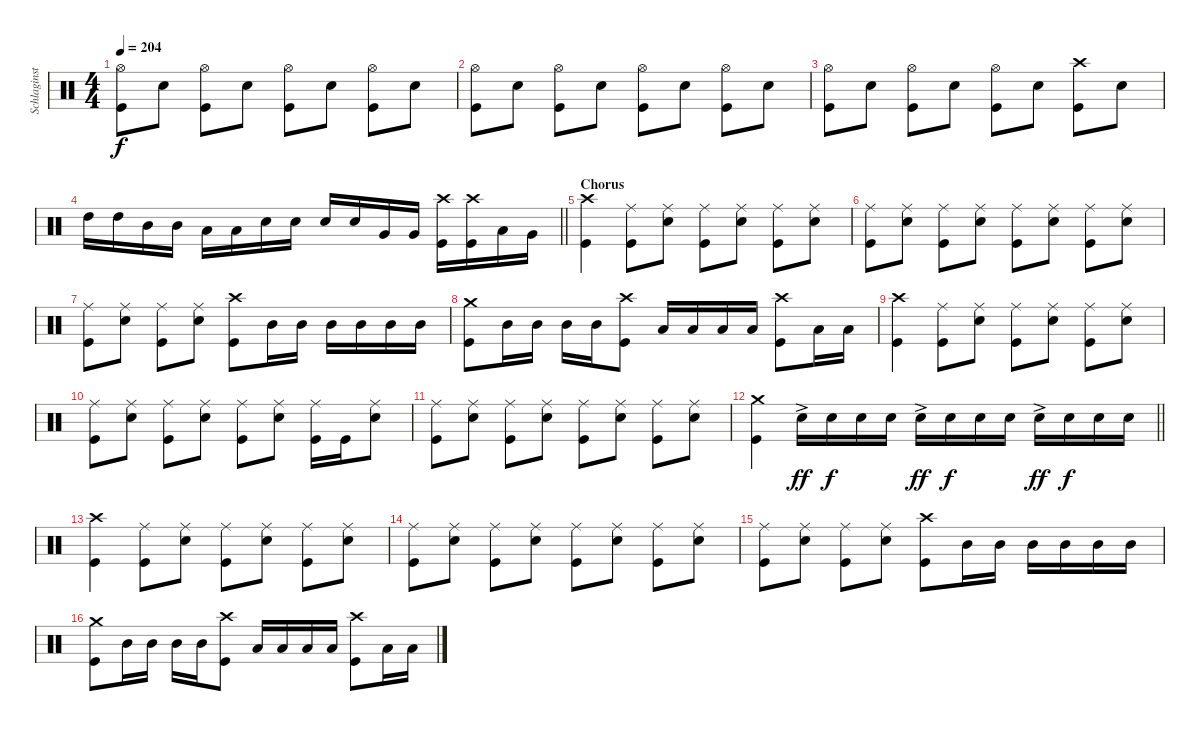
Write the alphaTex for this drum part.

\track ("Schlaginstrumente - Auswahl" "Schlaginst") {instrument percussion}
\staff {score}
\articulation defaults
\ts (4 4)
\tempo 204
\clef neutral
\ks c
("Kick (hit)" "Hi-Hat (open)").8{dy f} "Snare (hit) 2".8 ("Kick (hit)" "Hi-Hat (open)").8 "Snare (hit) 2".8 ("Kick (hit)" "Hi-Hat (open)").8 "Snare (hit) 2".8 ("Kick (hit)" "Hi-Hat (open)").8 "Snare (hit) 2".8 |
("Kick (hit)" "Hi-Hat (open)").8 "Snare (hit) 2".8 ("Kick (hit)" "Hi-Hat (open)").8 "Snare (hit) 2".8 ("Kick (hit)" "Hi-Hat (open)").8 "Snare (hit) 2".8 ("Kick (hit)" "Hi-Hat (open)").8 "Snare (hit) 2".8 |
("Kick (hit)" "Hi-Hat (open)").8 "Snare (hit) 2".8 ("Kick (hit)" "Hi-Hat (open)").8 "Snare (hit) 2".8 ("Kick (hit)" "Hi-Hat (open)").8 "Snare (hit) 2".8 ("Kick (hit)" "Crash high (hit)").8 "Snare (hit) 2".8 |
\barLineRight lightlight "High Tom (hit)".16 "High Tom (hit)".16 "Mid Tom (hit)".16 "Mid Tom (hit)".16 "Low Tom (hit)".16 "Low Tom (hit)".16 "Snare (hit) 2".16 "Snare (hit) 2".16 "Snare (hit) 2".16 "Snare (hit) 2".16 "Very Low Tom (hit)".16 "Very Low Tom (hit)".16
("Crash high (hit)" "Kick (hit)").16 ("Crash high (hit)" "Kick (hit)").16 "Low Tom (hit)".16 "Very Low Tom (hit)".16 |
\section ("" "Chorus")
("Kick (hit)" "Crash high (hit)").4 ("Kick (hit)" "Ride (middle)").8 ("Snare (hit) 2" "Ride (middle)").8 ("Kick (hit)" "Ride (middle)").8 ("Snare (hit) 2" "Ride (middle)").8 ("Kick (hit)" "Ride (middle)").8 ("Snare (hit) 2" "Ride (middle)").8 |
("Kick (hit)" "Ride (middle)").8 ("Snare (hit) 2" "Ride (middle)").8 ("Kick (hit)" "Ride (middle)").8 ("Snare (hit) 2" "Ride (middle)").8 ("Kick (hit)" "Ride (middle)").8 ("Snare (hit) 2" "Ride (middle)").8 ("Kick (hit)" "Ride (middle)").8 ("Snare (hit) 2" "Ride (middle)").8 |
("Kick (hit)" "Ride (middle)").8 ("Snare (hit) 2" "Ride (middle)").8 ("Kick (hit)" "Ride (middle)").8 ("Snare (hit) 2" "Ride (middle)").8 ("Kick (hit)" "Crash high (hit)").8 "Mid Tom (hit)".16 "Mid Tom (hit)".16 "Mid Tom (hit)".16 "Mid Tom (hit)".16 "Mid Tom (hit)".16 "Mid Tom (hit)".16 |
("Kick (hit)" "Crash medium (hit)").8 "Mid Tom (hit)".16 "Mid Tom (hit)".16 "Mid Tom (hit)".16 "Mid Tom (hit)".16 ("Kick (hit)" "Crash high (hit)").8 "Low Tom (hit)".16 "Low Tom (hit)".16 "Low Tom (hit)".16 "Low Tom (hit)".16 ("Kick (hit)" "Crash high (hit)").8 "Low Tom (hit)".16 "Low Tom (hit)".16 |
("Kick (hit)" "Crash high (hit)").4 ("Kick (hit)" "Ride (middle)").8 ("Snare (hit) 2" "Ride (middle)").8 ("Kick (hit)" "Ride (middle)").8 ("Snare (hit) 2" "Ride (middle)").8 ("Kick (hit)" "Ride (middle)").8 ("Snare (hit) 2" "Ride (middle)").8 |
("Kick (hit)" "Ride (middle)").8 ("Snare (hit) 2" "Ride (middle)").8 ("Kick (hit)" "Ride (middle)").8 ("Snare (hit) 2" "Ride (middle)").8 ("Kick (hit)" "Ride (middle)").8 ("Snare (hit) 2" "Ride (middle)").8 ("Kick (hit)" "Ride (middle)").16 "Kick (hit)".16 ("Snare (hit) 2" "Ride (middle)").8 |
("Kick (hit)" "Ride (middle)").8 ("Snare (hit) 2" "Ride (middle)").8 ("Kick (hit)" "Ride (middle)").8 ("Snare (hit) 2" "Ride (middle)").8 ("Kick (hit)" "Ride (middle)").8 ("Snare (hit) 2" "Ride (middle)").8 ("Kick (hit)" "Ride (middle)").8 ("Snare (hit) 2" "Ride (middle)").8 |
\barLineRight lightlight
("Kick (hit)" "Crash medium (hit)").4 "Snare (hit) 2"{ac}.16{dy ff} "Snare (hit) 2".16{dy f} "Snare (hit) 2".16 "Snare (hit) 2".16 "Snare (hit) 2"{ac}.16{dy ff} "Snare (hit) 2".16{dy f} "Snare (hit) 2".16 "Snare (hit) 2".16 "Snare (hit) 2"{ac}.16{dy ff} "Snare (hit) 2".16{dy f} "Snare (hit) 2".16 "Snare (hit) 2".16 |
("Kick (hit)" "Crash high (hit)").4 ("Kick (hit)" "Ride (middle)").8 ("Snare (hit) 2" "Ride (middle)").8 ("Kick (hit)" "Ride (middle)").8 ("Snare (hit) 2" "Ride (middle)").8 ("Kick (hit)" "Ride (middle)").8 ("Snare (hit) 2" "Ride (middle)").8 |
("Kick (hit)" "Ride (middle)").8 ("Snare (hit) 2" "Ride (middle)").8 ("Kick (hit)" "Ride (middle)").8 ("Snare (hit) 2" "Ride (middle)").8 ("Kick (hit)" "Ride (middle)").8 ("Snare (hit) 2" "Ride (middle)").8 ("Kick (hit)" "Ride (middle)").8 ("Snare (hit) 2" "Ride (middle)").8 |
("Kick (hit)" "Ride (middle)").8 ("Snare (hit) 2" "Ride (middle)").8 ("Kick (hit)" "Ride (middle)").8 ("Snare (hit) 2" "Ride (middle)").8 ("Kick (hit)" "Crash high (hit)").8 "Mid Tom (hit)".16 "Mid Tom (hit)".16 "Mid Tom (hit)".16 "Mid Tom (hit)".16 "Mid Tom (hit)".16 "Mid Tom (hit)".16 |
("Kick (hit)" "Crash medium (hit)").8 "Mid Tom (hit)".16 "Mid Tom (hit)".16 "Mid Tom (hit)".16 "Mid Tom (hit)".16 ("Kick (hit)" "Crash high (hit)").8 "Low Tom (hit)".16 "Low Tom (hit)".16 "Low Tom (hit)".16 "Low Tom (hit)".16 ("Kick (hit)" "Crash high (hit)").8 "Low Tom (hit)".16 "Low Tom (hit)".16
